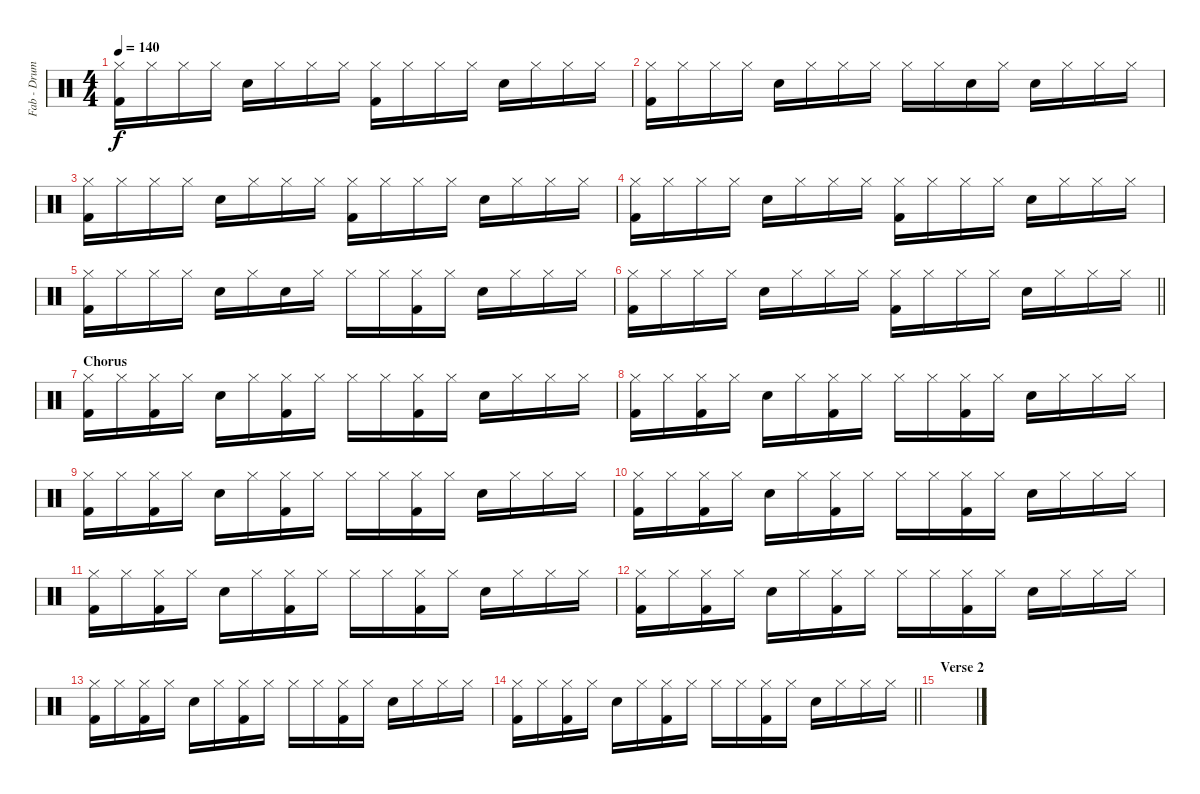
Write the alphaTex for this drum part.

\track ("Fab - Drums MIDI" "Fab - Drum") {instrument percussion}
\staff {score}
\articulation defaults
\ts (4 4)
\tempo 140
\clef neutral
\ks c
("Hi-Hat (closed)" "Kick (hit) 2").16{dy f} "Hi-Hat (closed)".16 "Hi-Hat (closed)".16 "Hi-Hat (closed)".16 "Snare (hit) 2".16 "Hi-Hat (closed)".16 "Hi-Hat (closed)".16 "Hi-Hat (closed)".16 ("Hi-Hat (closed)" "Kick (hit) 2").16 "Hi-Hat (closed)".16 "Hi-Hat (closed)".16 "Hi-Hat (closed)".16 "Snare (hit) 2".16 "Hi-Hat (closed)".16 "Hi-Hat (closed)".16 "Hi-Hat (closed)".16 |
("Hi-Hat (closed)" "Kick (hit) 2").16 "Hi-Hat (closed)".16 "Hi-Hat (closed)".16 "Hi-Hat (closed)".16 "Snare (hit) 2".16 "Hi-Hat (closed)".16 "Hi-Hat (closed)".16 "Hi-Hat (closed)".16 "Hi-Hat (closed)".16 "Hi-Hat (closed)".16 "Snare (hit) 2".16 "Hi-Hat (closed)".16 "Snare (hit) 2".16 "Hi-Hat (closed)".16 "Hi-Hat (closed)".16 "Hi-Hat (closed)".16 |
("Hi-Hat (closed)" "Kick (hit) 2").16 "Hi-Hat (closed)".16 "Hi-Hat (closed)".16 "Hi-Hat (closed)".16 "Snare (hit) 2".16 "Hi-Hat (closed)".16 "Hi-Hat (closed)".16 "Hi-Hat (closed)".16 ("Hi-Hat (closed)" "Kick (hit) 2").16 "Hi-Hat (closed)".16 "Hi-Hat (closed)".16 "Hi-Hat (closed)".16 "Snare (hit) 2".16 "Hi-Hat (closed)".16 "Hi-Hat (closed)".16 "Hi-Hat (closed)".16 |
("Hi-Hat (closed)" "Kick (hit) 2").16 "Hi-Hat (closed)".16 "Hi-Hat (closed)".16 "Hi-Hat (closed)".16 "Snare (hit) 2".16 "Hi-Hat (closed)".16 "Hi-Hat (closed)".16 "Hi-Hat (closed)".16 ("Hi-Hat (closed)" "Kick (hit) 2").16 "Hi-Hat (closed)".16 "Hi-Hat (closed)".16 "Hi-Hat (closed)".16 "Snare (hit) 2".16 "Hi-Hat (closed)".16 "Hi-Hat (closed)".16 "Hi-Hat (closed)".16 |
("Hi-Hat (closed)" "Kick (hit) 2").16 "Hi-Hat (closed)".16 "Hi-Hat (closed)".16 "Hi-Hat (closed)".16 "Snare (hit) 2".16 "Hi-Hat (closed)".16 "Snare (hit) 2".16 "Hi-Hat (closed)".16 "Hi-Hat (closed)".16 "Hi-Hat (closed)".16 ("Hi-Hat (closed)" "Kick (hit) 2").16 "Hi-Hat (closed)".16 "Snare (hit) 2".16 "Hi-Hat (closed)".16 "Hi-Hat (closed)".16 "Hi-Hat (closed)".16 |
\barLineRight lightlight
("Hi-Hat (closed)" "Kick (hit) 2").16 "Hi-Hat (closed)".16 "Hi-Hat (closed)".16 "Hi-Hat (closed)".16 "Snare (hit) 2".16 "Hi-Hat (closed)".16 "Hi-Hat (closed)".16 "Hi-Hat (closed)".16 ("Hi-Hat (closed)" "Kick (hit) 2").16 "Hi-Hat (closed)".16 "Hi-Hat (closed)".16 "Hi-Hat (closed)".16 "Snare (hit) 2".16 "Hi-Hat (closed)".16 "Hi-Hat (closed)".16 "Hi-Hat (closed)".16 |
\section ("" "Chorus")
("Hi-Hat (closed)" "Kick (hit) 2").16 "Hi-Hat (closed)".16 ("Hi-Hat (closed)" "Kick (hit) 2").16 "Hi-Hat (closed)".16 "Snare (hit) 2".16 "Hi-Hat (closed)".16 ("Hi-Hat (closed)" "Kick (hit) 2").16 "Hi-Hat (closed)".16 "Hi-Hat (closed)".16 "Hi-Hat (closed)".16 ("Hi-Hat (closed)" "Kick (hit) 2").16 "Hi-Hat (closed)".16 "Snare (hit) 2".16 "Hi-Hat (closed)".16 "Hi-Hat (closed)".16 "Hi-Hat (closed)".16 |
("Hi-Hat (closed)" "Kick (hit) 2").16 "Hi-Hat (closed)".16 ("Hi-Hat (closed)" "Kick (hit) 2").16 "Hi-Hat (closed)".16 "Snare (hit) 2".16 "Hi-Hat (closed)".16 ("Hi-Hat (closed)" "Kick (hit) 2").16 "Hi-Hat (closed)".16 "Hi-Hat (closed)".16 "Hi-Hat (closed)".16 ("Hi-Hat (closed)" "Kick (hit) 2").16 "Hi-Hat (closed)".16 "Snare (hit) 2".16 "Hi-Hat (closed)".16 "Hi-Hat (closed)".16 "Hi-Hat (closed)".16 |
("Hi-Hat (closed)" "Kick (hit) 2").16 "Hi-Hat (closed)".16 ("Hi-Hat (closed)" "Kick (hit) 2").16 "Hi-Hat (closed)".16 "Snare (hit) 2".16 "Hi-Hat (closed)".16 ("Hi-Hat (closed)" "Kick (hit) 2").16 "Hi-Hat (closed)".16 "Hi-Hat (closed)".16 "Hi-Hat (closed)".16 ("Hi-Hat (closed)" "Kick (hit) 2").16 "Hi-Hat (closed)".16 "Snare (hit) 2".16 "Hi-Hat (closed)".16 "Hi-Hat (closed)".16 "Hi-Hat (closed)".16 |
("Hi-Hat (closed)" "Kick (hit) 2").16 "Hi-Hat (closed)".16 ("Hi-Hat (closed)" "Kick (hit) 2").16 "Hi-Hat (closed)".16 "Snare (hit) 2".16 "Hi-Hat (closed)".16 ("Hi-Hat (closed)" "Kick (hit) 2").16 "Hi-Hat (closed)".16 "Hi-Hat (closed)".16 "Hi-Hat (closed)".16 ("Hi-Hat (closed)" "Kick (hit) 2").16 "Hi-Hat (closed)".16 "Snare (hit) 2".16 "Hi-Hat (closed)".16 "Hi-Hat (closed)".16 "Hi-Hat (closed)".16 |
("Hi-Hat (closed)" "Kick (hit) 2").16 "Hi-Hat (closed)".16 ("Hi-Hat (closed)" "Kick (hit) 2").16 "Hi-Hat (closed)".16 "Snare (hit) 2".16 "Hi-Hat (closed)".16 ("Hi-Hat (closed)" "Kick (hit) 2").16 "Hi-Hat (closed)".16 "Hi-Hat (closed)".16 "Hi-Hat (closed)".16 ("Hi-Hat (closed)" "Kick (hit) 2").16 "Hi-Hat (closed)".16 "Snare (hit) 2".16 "Hi-Hat (closed)".16 "Hi-Hat (closed)".16 "Hi-Hat (closed)".16 |
("Hi-Hat (closed)" "Kick (hit) 2").16 "Hi-Hat (closed)".16 ("Hi-Hat (closed)" "Kick (hit) 2").16 "Hi-Hat (closed)".16 "Snare (hit) 2".16 "Hi-Hat (closed)".16 ("Hi-Hat (closed)" "Kick (hit) 2").16 "Hi-Hat (closed)".16 "Hi-Hat (closed)".16 "Hi-Hat (closed)".16 ("Hi-Hat (closed)" "Kick (hit) 2").16 "Hi-Hat (closed)".16 "Snare (hit) 2".16 "Hi-Hat (closed)".16 "Hi-Hat (closed)".16 "Hi-Hat (closed)".16 |
("Hi-Hat (closed)" "Kick (hit) 2").16 "Hi-Hat (closed)".16 ("Hi-Hat (closed)" "Kick (hit) 2").16 "Hi-Hat (closed)".16 "Snare (hit) 2".16 "Hi-Hat (closed)".16 ("Hi-Hat (closed)" "Kick (hit) 2").16 "Hi-Hat (closed)".16 "Hi-Hat (closed)".16 "Hi-Hat (closed)".16 ("Hi-Hat (closed)" "Kick (hit) 2").16 "Hi-Hat (closed)".16 "Snare (hit) 2".16 "Hi-Hat (closed)".16 "Hi-Hat (closed)".16 "Hi-Hat (closed)".16 |
\barLineRight lightlight
("Hi-Hat (closed)" "Kick (hit) 2").16 "Hi-Hat (closed)".16 ("Hi-Hat (closed)" "Kick (hit) 2").16 "Hi-Hat (closed)".16 "Snare (hit) 2".16 "Hi-Hat (closed)".16 ("Hi-Hat (closed)" "Kick (hit) 2").16 "Hi-Hat (closed)".16 "Hi-Hat (closed)".16 "Hi-Hat (closed)".16 ("Hi-Hat (closed)" "Kick (hit) 2").16 "Hi-Hat (closed)".16 "Snare (hit) 2".16 "Hi-Hat (closed)".16 "Hi-Hat (closed)".16 "Hi-Hat (closed)".16 |
\section ("" "Verse 2")
